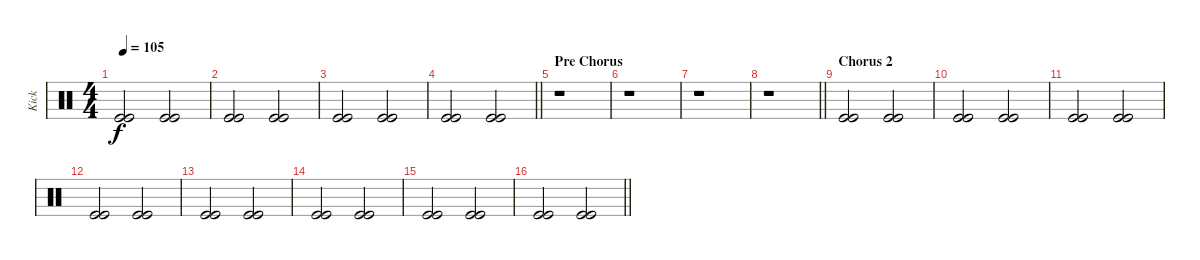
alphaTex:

\track ("Kick" "Kick") {instrument percussion}
\staff {score}
\articulation defaults
\ts (4 4)
\tempo 105
\clef neutral
\ks c
("Kick (hit)" "Kick (hit)").2{dy f beam merge} ("Kick (hit)" "Kick (hit)").2 |
("Kick (hit)" "Kick (hit)").2{beam merge} ("Kick (hit)" "Kick (hit)").2 |
("Kick (hit)" "Kick (hit)").2{beam merge} ("Kick (hit)" "Kick (hit)").2 |
\barLineRight lightlight
("Kick (hit)" "Kick (hit)").2 ("Kick (hit)" "Kick (hit)").2 |
\section ("" "Pre Chorus")
r.1 |
r.1 |
r.1 |
\barLineRight lightlight
r.1 |
\section ("" "Chorus 2")
("Kick (hit)" "Kick (hit)").2 ("Kick (hit)" "Kick (hit)").2 |
("Kick (hit)" "Kick (hit)").2 ("Kick (hit)" "Kick (hit)").2 |
("Kick (hit)" "Kick (hit)").2 ("Kick (hit)" "Kick (hit)").2 |
("Kick (hit)" "Kick (hit)").2{beam merge} ("Kick (hit)" "Kick (hit)").2 |
("Kick (hit)" "Kick (hit)").2 ("Kick (hit)" "Kick (hit)").2 |
("Kick (hit)" "Kick (hit)").2{beam merge} ("Kick (hit)" "Kick (hit)").2 |
("Kick (hit)" "Kick (hit)").2 ("Kick (hit)" "Kick (hit)").2 |
\barLineRight lightlight
("Kick (hit)" "Kick (hit)").2{beam merge} ("Kick (hit)" "Kick (hit)").2
